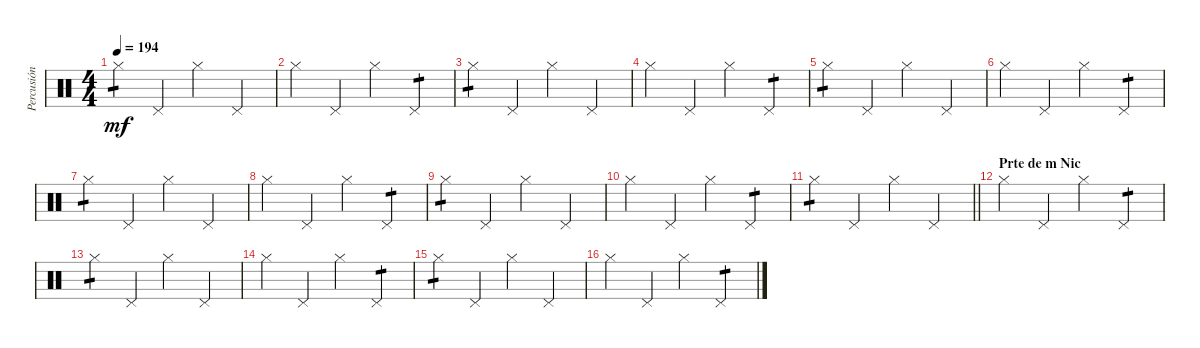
\track ("Percusión" "Percusión") {instrument percussion}
\staff {score}
\articulation defaults
\ts (4 4)
\tempo 194
\clef neutral
\ks c "Hi-Hat (closed)".4{tp 1 dy mf} "Pedal Hi-Hat (hit)".4 "Hi-Hat (closed)".4 "Pedal Hi-Hat (hit)".4
|
"Hi-Hat (closed)".4 "Pedal Hi-Hat (hit)".4 "Hi-Hat (closed)".4 "Pedal Hi-Hat (hit)".4{tp 1} |
"Hi-Hat (closed)".4{tp 1} "Pedal Hi-Hat (hit)".4 "Hi-Hat (closed)".4 "Pedal Hi-Hat (hit)".4 |
"Hi-Hat (closed)".4 "Pedal Hi-Hat (hit)".4 "Hi-Hat (closed)".4 "Pedal Hi-Hat (hit)".4{tp 1} |
"Hi-Hat (closed)".4{tp 1} "Pedal Hi-Hat (hit)".4 "Hi-Hat (closed)".4 "Pedal Hi-Hat (hit)".4 |
"Hi-Hat (closed)".4 "Pedal Hi-Hat (hit)".4 "Hi-Hat (closed)".4 "Pedal Hi-Hat (hit)".4{tp 1} |
"Hi-Hat (closed)".4{tp 1} "Pedal Hi-Hat (hit)".4 "Hi-Hat (closed)".4 "Pedal Hi-Hat (hit)".4 |
"Hi-Hat (closed)".4 "Pedal Hi-Hat (hit)".4 "Hi-Hat (closed)".4 "Pedal Hi-Hat (hit)".4{tp 1} |
"Hi-Hat (closed)".4{tp 1} "Pedal Hi-Hat (hit)".4 "Hi-Hat (closed)".4 "Pedal Hi-Hat (hit)".4 |
"Hi-Hat (closed)".4 "Pedal Hi-Hat (hit)".4 "Hi-Hat (closed)".4 "Pedal Hi-Hat (hit)".4{tp 1} |
\barLineRight lightlight "Hi-Hat (closed)".4{tp 1} "Pedal Hi-Hat (hit)".4 "Hi-Hat (closed)".4 "Pedal Hi-Hat (hit)".4
|
\section ("" "Prte de m Nic")
"Hi-Hat (closed)".4 "Pedal Hi-Hat (hit)".4 "Hi-Hat (closed)".4 "Pedal Hi-Hat (hit)".4{tp 1} |
"Hi-Hat (closed)".4{tp 1} "Pedal Hi-Hat (hit)".4 "Hi-Hat (closed)".4 "Pedal Hi-Hat (hit)".4 |
"Hi-Hat (closed)".4 "Pedal Hi-Hat (hit)".4 "Hi-Hat (closed)".4 "Pedal Hi-Hat (hit)".4{tp 1} |
"Hi-Hat (closed)".4{tp 1} "Pedal Hi-Hat (hit)".4 "Hi-Hat (closed)".4 "Pedal Hi-Hat (hit)".4 |
"Hi-Hat (closed)".4 "Pedal Hi-Hat (hit)".4 "Hi-Hat (closed)".4 "Pedal Hi-Hat (hit)".4{tp 1}
